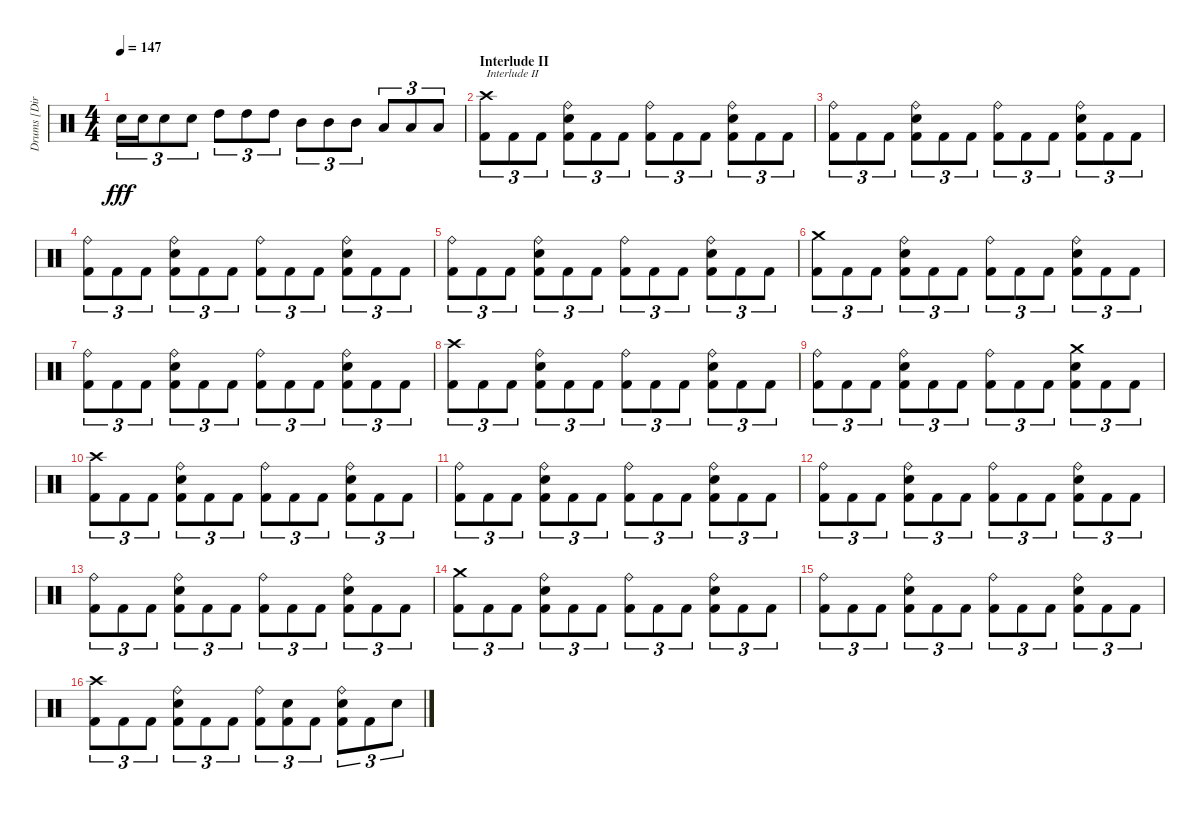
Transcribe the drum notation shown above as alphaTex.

\track ("Drums [Dirge Rep]" "Drums [Dir") {instrument percussion}
\staff {score}
\articulation defaults
\ts (4 4)
\tempo 147
\clef neutral
\ks c "Electric Snare (hit)".16{tu (3 2) dy fff} "Electric Snare (hit)".16{tu (3 2)} "Electric Snare (hit)".8{tu (3 2)} "Electric Snare (hit)".8{tu (3 2)} "High Tom (hit)".8{tu (3 2)} "High Tom (hit)".8{tu (3 2)} "High Tom (hit)".8{tu (3 2)} "Mid Tom (hit)".8{tu (3 2)} "Mid Tom (hit)".8{tu (3 2)} "Mid Tom (hit)".8{tu (3 2)} "Low Tom (hit)".8{tu (3 2)} "Low Tom (hit)".8{tu (3 2)} "Low Tom (hit)".8{tu (3 2)}
|
\section ("" "Interlude II")
("Crash high (hit)" "Kick (hit) 2").8{tu (3 2) txt "Interlude II"} "Kick (hit) 2".8{tu (3 2)} "Kick (hit) 2".8{tu (3 2)} ("Ride (bell)" "Electric Snare (hit)" "Kick (hit) 2").8{tu (3 2)} "Kick (hit) 2".8{tu (3 2)} "Kick (hit) 2".8{tu (3 2)} ("Ride (bell)" "Kick (hit) 2").8{tu (3 2)} "Kick (hit) 2".8{tu (3 2)} "Kick (hit) 2".8{tu (3 2)} ("Ride (bell)" "Electric Snare (hit)" "Kick (hit) 2").8{tu (3 2)} "Kick (hit) 2".8{tu (3 2)} "Kick (hit) 2".8{tu (3 2)} |
("Ride (bell)" "Kick (hit) 2").8{tu (3 2)} "Kick (hit) 2".8{tu (3 2)} "Kick (hit) 2".8{tu (3 2)} ("Ride (bell)" "Electric Snare (hit)" "Kick (hit) 2").8{tu (3 2)} "Kick (hit) 2".8{tu (3 2)} "Kick (hit) 2".8{tu (3 2)} ("Ride (bell)" "Kick (hit) 2").8{tu (3 2)} "Kick (hit) 2".8{tu (3 2)} "Kick (hit) 2".8{tu (3 2)} ("Ride (bell)" "Electric Snare (hit)" "Kick (hit) 2").8{tu (3 2)} "Kick (hit) 2".8{tu (3 2)} "Kick (hit) 2".8{tu (3 2)} |
("Ride (bell)" "Kick (hit) 2").8{tu (3 2)} "Kick (hit) 2".8{tu (3 2)} "Kick (hit) 2".8{tu (3 2)} ("Ride (bell)" "Electric Snare (hit)" "Kick (hit) 2").8{tu (3 2)} "Kick (hit) 2".8{tu (3 2)} "Kick (hit) 2".8{tu (3 2)} ("Ride (bell)" "Kick (hit) 2").8{tu (3 2)} "Kick (hit) 2".8{tu (3 2)} "Kick (hit) 2".8{tu (3 2)} ("Ride (bell)" "Electric Snare (hit)" "Kick (hit) 2").8{tu (3 2)} "Kick (hit) 2".8{tu (3 2)} "Kick (hit) 2".8{tu (3 2)} |
("Ride (bell)" "Kick (hit) 2").8{tu (3 2)} "Kick (hit) 2".8{tu (3 2)} "Kick (hit) 2".8{tu (3 2)} ("Ride (bell)" "Electric Snare (hit)" "Kick (hit) 2").8{tu (3 2)} "Kick (hit) 2".8{tu (3 2)} "Kick (hit) 2".8{tu (3 2)} ("Ride (bell)" "Kick (hit) 2").8{tu (3 2)} "Kick (hit) 2".8{tu (3 2)} "Kick (hit) 2".8{tu (3 2)} ("Ride (bell)" "Electric Snare (hit)" "Kick (hit) 2").8{tu (3 2)} "Kick (hit) 2".8{tu (3 2)} "Kick (hit) 2".8{tu (3 2)} |
("Crash medium (hit)" "Kick (hit) 2").8{tu (3 2)} "Kick (hit) 2".8{tu (3 2)} "Kick (hit) 2".8{tu (3 2)} ("Ride (bell)" "Electric Snare (hit)" "Kick (hit) 2").8{tu (3 2)} "Kick (hit) 2".8{tu (3 2)} "Kick (hit) 2".8{tu (3 2)} ("Ride (bell)" "Kick (hit) 2").8{tu (3 2)} "Kick (hit) 2".8{tu (3 2)} "Kick (hit) 2".8{tu (3 2)} ("Ride (bell)" "Electric Snare (hit)" "Kick (hit) 2").8{tu (3 2)} "Kick (hit) 2".8{tu (3 2)} "Kick (hit) 2".8{tu (3 2)} |
("Ride (bell)" "Kick (hit) 2").8{tu (3 2)} "Kick (hit) 2".8{tu (3 2)} "Kick (hit) 2".8{tu (3 2)} ("Ride (bell)" "Electric Snare (hit)" "Kick (hit) 2").8{tu (3 2)} "Kick (hit) 2".8{tu (3 2)} "Kick (hit) 2".8{tu (3 2)} ("Ride (bell)" "Kick (hit) 2").8{tu (3 2)} "Kick (hit) 2".8{tu (3 2)} "Kick (hit) 2".8{tu (3 2)} ("Ride (bell)" "Electric Snare (hit)" "Kick (hit) 2").8{tu (3 2)} "Kick (hit) 2".8{tu (3 2)} "Kick (hit) 2".8{tu (3 2)} |
("Crash high (hit)" "Kick (hit) 2").8{tu (3 2)} "Kick (hit) 2".8{tu (3 2)} "Kick (hit) 2".8{tu (3 2)} ("Ride (bell)" "Electric Snare (hit)" "Kick (hit) 2").8{tu (3 2)} "Kick (hit) 2".8{tu (3 2)} "Kick (hit) 2".8{tu (3 2)} ("Ride (bell)" "Kick (hit) 2").8{tu (3 2)} "Kick (hit) 2".8{tu (3 2)} "Kick (hit) 2".8{tu (3 2)} ("Ride (bell)" "Electric Snare (hit)" "Kick (hit) 2").8{tu (3 2)} "Kick (hit) 2".8{tu (3 2)} "Kick (hit) 2".8{tu (3 2)} |
("Ride (bell)" "Kick (hit) 2").8{tu (3 2)} "Kick (hit) 2".8{tu (3 2)} "Kick (hit) 2".8{tu (3 2)} ("Ride (bell)" "Electric Snare (hit)" "Kick (hit) 2").8{tu (3 2)} "Kick (hit) 2".8{tu (3 2)} "Kick (hit) 2".8{tu (3 2)} ("Ride (bell)" "Kick (hit) 2").8{tu (3 2)} "Kick (hit) 2".8{tu (3 2)} "Kick (hit) 2".8{tu (3 2)} ("Crash medium (hit)" "Electric Snare (hit)" "Kick (hit) 2").8{tu (3 2)} "Kick (hit) 2".8{tu (3 2)} "Kick (hit) 2".8{tu (3 2)} |
("Crash high (hit)" "Kick (hit) 2").8{tu (3 2)} "Kick (hit) 2".8{tu (3 2)} "Kick (hit) 2".8{tu (3 2)} ("Ride (bell)" "Electric Snare (hit)" "Kick (hit) 2").8{tu (3 2)} "Kick (hit) 2".8{tu (3 2)} "Kick (hit) 2".8{tu (3 2)} ("Ride (bell)" "Kick (hit) 2").8{tu (3 2)} "Kick (hit) 2".8{tu (3 2)} "Kick (hit) 2".8{tu (3 2)} ("Ride (bell)" "Electric Snare (hit)" "Kick (hit) 2").8{tu (3 2)} "Kick (hit) 2".8{tu (3 2)} "Kick (hit) 2".8{tu (3 2)} |
("Ride (bell)" "Kick (hit) 2").8{tu (3 2)} "Kick (hit) 2".8{tu (3 2)} "Kick (hit) 2".8{tu (3 2)} ("Ride (bell)" "Electric Snare (hit)" "Kick (hit) 2").8{tu (3 2)} "Kick (hit) 2".8{tu (3 2)} "Kick (hit) 2".8{tu (3 2)} ("Ride (bell)" "Kick (hit) 2").8{tu (3 2)} "Kick (hit) 2".8{tu (3 2)} "Kick (hit) 2".8{tu (3 2)} ("Ride (bell)" "Electric Snare (hit)" "Kick (hit) 2").8{tu (3 2)} "Kick (hit) 2".8{tu (3 2)} "Kick (hit) 2".8{tu (3 2)} |
("Ride (bell)" "Kick (hit) 2").8{tu (3 2)} "Kick (hit) 2".8{tu (3 2)} "Kick (hit) 2".8{tu (3 2)} ("Ride (bell)" "Electric Snare (hit)" "Kick (hit) 2").8{tu (3 2)} "Kick (hit) 2".8{tu (3 2)} "Kick (hit) 2".8{tu (3 2)} ("Ride (bell)" "Kick (hit) 2").8{tu (3 2)} "Kick (hit) 2".8{tu (3 2)} "Kick (hit) 2".8{tu (3 2)} ("Ride (bell)" "Electric Snare (hit)" "Kick (hit) 2").8{tu (3 2)} "Kick (hit) 2".8{tu (3 2)} "Kick (hit) 2".8{tu (3 2)} |
("Ride (bell)" "Kick (hit) 2").8{tu (3 2)} "Kick (hit) 2".8{tu (3 2)} "Kick (hit) 2".8{tu (3 2)} ("Ride (bell)" "Electric Snare (hit)" "Kick (hit) 2").8{tu (3 2)} "Kick (hit) 2".8{tu (3 2)} "Kick (hit) 2".8{tu (3 2)} ("Ride (bell)" "Kick (hit) 2").8{tu (3 2)} "Kick (hit) 2".8{tu (3 2)} "Kick (hit) 2".8{tu (3 2)} ("Ride (bell)" "Electric Snare (hit)" "Kick (hit) 2").8{tu (3 2)} "Kick (hit) 2".8{tu (3 2)} "Kick (hit) 2".8{tu (3 2)} |
("Crash medium (hit)" "Kick (hit) 2").8{tu (3 2)} "Kick (hit) 2".8{tu (3 2)} "Kick (hit) 2".8{tu (3 2)} ("Ride (bell)" "Electric Snare (hit)" "Kick (hit) 2").8{tu (3 2)} "Kick (hit) 2".8{tu (3 2)} "Kick (hit) 2".8{tu (3 2)} ("Ride (bell)" "Kick (hit) 2").8{tu (3 2)} "Kick (hit) 2".8{tu (3 2)} "Kick (hit) 2".8{tu (3 2)} ("Ride (bell)" "Electric Snare (hit)" "Kick (hit) 2").8{tu (3 2)} "Kick (hit) 2".8{tu (3 2)} "Kick (hit) 2".8{tu (3 2)} |
("Ride (bell)" "Kick (hit) 2").8{tu (3 2)} "Kick (hit) 2".8{tu (3 2)} "Kick (hit) 2".8{tu (3 2)} ("Ride (bell)" "Electric Snare (hit)" "Kick (hit) 2").8{tu (3 2)} "Kick (hit) 2".8{tu (3 2)} "Kick (hit) 2".8{tu (3 2)} ("Ride (bell)" "Kick (hit) 2").8{tu (3 2)} "Kick (hit) 2".8{tu (3 2)} "Kick (hit) 2".8{tu (3 2)} ("Ride (bell)" "Electric Snare (hit)" "Kick (hit) 2").8{tu (3 2)} "Kick (hit) 2".8{tu (3 2)} "Kick (hit) 2".8{tu (3 2)} |
("Crash high (hit)" "Kick (hit) 2").8{tu (3 2)} "Kick (hit) 2".8{tu (3 2)} "Kick (hit) 2".8{tu (3 2)} ("Ride (bell)" "Electric Snare (hit)" "Kick (hit) 2").8{tu (3 2)} "Kick (hit) 2".8{tu (3 2)} "Kick (hit) 2".8{tu (3 2)} ("Ride (bell)" "Kick (hit) 2").8{tu (3 2)} ("Electric Snare (hit)" "Kick (hit) 2").8{tu (3 2)} "Kick (hit) 2".8{tu (3 2)} ("Ride (bell)" "Electric Snare (hit)" "Kick (hit) 2").8{tu (3 2)} "Kick (hit) 2".8{tu (3 2)} "Electric Snare (hit)".8{tu (3 2)}
